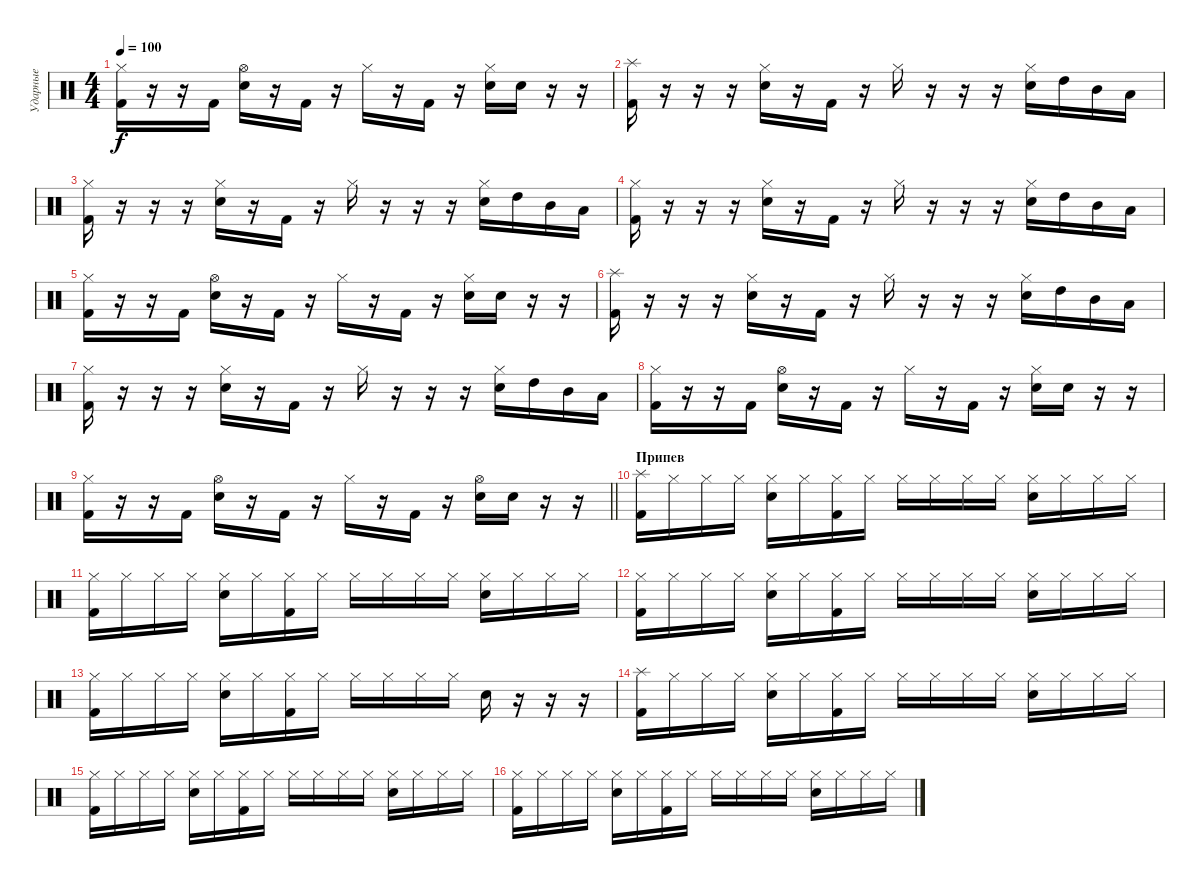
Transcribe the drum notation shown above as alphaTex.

\track ("Ударные" "Ударные") {instrument percussion}
\staff {score}
\articulation defaults
\ts (4 4)
\tempo 100
\clef neutral
\ks c
("Hi-Hat (closed)" "Kick (hit) 2").16{dy f} r.16 r.16 "Kick (hit) 2".16 ("Hi-Hat (open)" "Electric Snare (hit)").16 r.16 "Kick (hit) 2".16 r.16 "Hi-Hat (closed)".16 r.16 "Kick (hit) 2".16 r.16 ("Hi-Hat (closed)" "Electric Snare (hit)").16 "Electric Snare (hit)".16 r.16 r.16 |
("Splash (hit)" "Kick (hit) 2").16 r.16 r.16 r.16 ("Hi-Hat (closed)" "Electric Snare (hit)").16 r.16 "Kick (hit) 2".16 r.16 "Hi-Hat (closed)".16 r.16 r.16 r.16 ("Hi-Hat (closed)" "Electric Snare (hit)").16 "High Tom (hit)".16 "Mid Tom (hit)".16 "Low Tom (hit)".16 |
("Hi-Hat (closed)" "Kick (hit) 2").16 r.16 r.16 r.16 ("Hi-Hat (closed)" "Electric Snare (hit)").16 r.16 "Kick (hit) 2".16 r.16 "Hi-Hat (closed)".16 r.16 r.16 r.16 ("Hi-Hat (closed)" "Electric Snare (hit)").16 "High Tom (hit)".16 "Mid Tom (hit)".16 "Low Tom (hit)".16 |
("Hi-Hat (closed)" "Kick (hit) 2").16 r.16 r.16 r.16 ("Hi-Hat (closed)" "Electric Snare (hit)").16 r.16 "Kick (hit) 2".16 r.16 "Hi-Hat (closed)".16 r.16 r.16 r.16 ("Hi-Hat (closed)" "Electric Snare (hit)").16 "High Tom (hit)".16 "Mid Tom (hit)".16 "Low Tom (hit)".16 |
("Hi-Hat (closed)" "Kick (hit) 2").16 r.16 r.16 "Kick (hit) 2".16 ("Hi-Hat (open)" "Electric Snare (hit)").16 r.16 "Kick (hit) 2".16 r.16 "Hi-Hat (closed)".16 r.16 "Kick (hit) 2".16 r.16 ("Hi-Hat (closed)" "Electric Snare (hit)").16 "Electric Snare (hit)".16 r.16 r.16 |
("Splash (hit)" "Kick (hit) 2").16 r.16 r.16 r.16 ("Hi-Hat (closed)" "Electric Snare (hit)").16 r.16 "Kick (hit) 2".16 r.16 "Hi-Hat (closed)".16 r.16 r.16 r.16 ("Hi-Hat (closed)" "Electric Snare (hit)").16 "High Tom (hit)".16 "Mid Tom (hit)".16 "Low Tom (hit)".16 |
("Hi-Hat (closed)" "Kick (hit) 2").16 r.16 r.16 r.16 ("Hi-Hat (closed)" "Electric Snare (hit)").16 r.16 "Kick (hit) 2".16 r.16 "Hi-Hat (closed)".16 r.16 r.16 r.16 ("Hi-Hat (closed)" "Electric Snare (hit)").16 "High Tom (hit)".16 "Mid Tom (hit)".16 "Low Tom (hit)".16 |
("Hi-Hat (closed)" "Kick (hit) 2").16 r.16 r.16 "Kick (hit) 2".16 ("Hi-Hat (open)" "Electric Snare (hit)").16 r.16 "Kick (hit) 2".16 r.16 "Hi-Hat (closed)".16 r.16 "Kick (hit) 2".16 r.16 ("Hi-Hat (closed)" "Electric Snare (hit)").16 "Electric Snare (hit)".16 r.16 r.16 |
\barLineRight lightlight
("Hi-Hat (closed)" "Kick (hit) 2").16 r.16 r.16 "Kick (hit) 2".16 ("Hi-Hat (open)" "Electric Snare (hit)").16 r.16 "Kick (hit) 2".16 r.16 "Hi-Hat (closed)".16 r.16 "Kick (hit) 2".16 r.16 ("Hi-Hat (open)" "Electric Snare (hit)").16 "Electric Snare (hit)".16 r.16 r.16 |
\section ("" "Припев")
("Splash (hit)" "Kick (hit) 2").16 "Hi-Hat (closed)".16 "Hi-Hat (closed)".16 "Hi-Hat (closed)".16 ("Hi-Hat (closed)" "Electric Snare (hit)").16 "Hi-Hat (closed)".16 ("Hi-Hat (closed)" "Kick (hit) 2").16 "Hi-Hat (closed)".16 "Hi-Hat (closed)".16 "Hi-Hat (closed)".16 "Hi-Hat (closed)".16 "Hi-Hat (closed)".16 ("Hi-Hat (closed)" "Electric Snare (hit)").16 "Hi-Hat (closed)".16 "Hi-Hat (closed)".16 "Hi-Hat (closed)".16 |
("Hi-Hat (closed)" "Kick (hit) 2").16 "Hi-Hat (closed)".16 "Hi-Hat (closed)".16 "Hi-Hat (closed)".16 ("Hi-Hat (closed)" "Electric Snare (hit)").16 "Hi-Hat (closed)".16 ("Hi-Hat (closed)" "Kick (hit) 2").16 "Hi-Hat (closed)".16 "Hi-Hat (closed)".16 "Hi-Hat (closed)".16 "Hi-Hat (closed)".16 "Hi-Hat (closed)".16 ("Hi-Hat (closed)" "Electric Snare (hit)").16 "Hi-Hat (closed)".16 "Hi-Hat (closed)".16 "Hi-Hat (closed)".16 |
("Hi-Hat (closed)" "Kick (hit) 2").16 "Hi-Hat (closed)".16 "Hi-Hat (closed)".16 "Hi-Hat (closed)".16 ("Hi-Hat (closed)" "Electric Snare (hit)").16 "Hi-Hat (closed)".16 ("Hi-Hat (closed)" "Kick (hit) 2").16 "Hi-Hat (closed)".16 "Hi-Hat (closed)".16 "Hi-Hat (closed)".16 "Hi-Hat (closed)".16 "Hi-Hat (closed)".16 ("Hi-Hat (closed)" "Electric Snare (hit)").16 "Hi-Hat (closed)".16 "Hi-Hat (closed)".16 "Hi-Hat (closed)".16 |
("Hi-Hat (closed)" "Kick (hit) 2").16 "Hi-Hat (closed)".16 "Hi-Hat (closed)".16 "Hi-Hat (closed)".16 ("Hi-Hat (closed)" "Electric Snare (hit)").16 "Hi-Hat (closed)".16 ("Hi-Hat (closed)" "Kick (hit) 2").16 "Hi-Hat (closed)".16 "Hi-Hat (closed)".16 "Hi-Hat (closed)".16 "Hi-Hat (closed)".16 "Hi-Hat (closed)".16 "Electric Snare (hit)".16 r.16 r.16 r.16 |
("Splash (hit)" "Kick (hit) 2").16 "Hi-Hat (closed)".16 "Hi-Hat (closed)".16 "Hi-Hat (closed)".16 ("Hi-Hat (closed)" "Electric Snare (hit)").16 "Hi-Hat (closed)".16 ("Hi-Hat (closed)" "Kick (hit) 2").16 "Hi-Hat (closed)".16 "Hi-Hat (closed)".16 "Hi-Hat (closed)".16 "Hi-Hat (closed)".16 "Hi-Hat (closed)".16 ("Hi-Hat (closed)" "Electric Snare (hit)").16 "Hi-Hat (closed)".16 "Hi-Hat (closed)".16 "Hi-Hat (closed)".16 |
("Hi-Hat (closed)" "Kick (hit) 2").16 "Hi-Hat (closed)".16 "Hi-Hat (closed)".16 "Hi-Hat (closed)".16 ("Hi-Hat (closed)" "Electric Snare (hit)").16 "Hi-Hat (closed)".16 ("Hi-Hat (closed)" "Kick (hit) 2").16 "Hi-Hat (closed)".16 "Hi-Hat (closed)".16 "Hi-Hat (closed)".16 "Hi-Hat (closed)".16 "Hi-Hat (closed)".16 ("Hi-Hat (closed)" "Electric Snare (hit)").16 "Hi-Hat (closed)".16 "Hi-Hat (closed)".16 "Hi-Hat (closed)".16 |
("Hi-Hat (closed)" "Kick (hit) 2").16 "Hi-Hat (closed)".16 "Hi-Hat (closed)".16 "Hi-Hat (closed)".16 ("Hi-Hat (closed)" "Electric Snare (hit)").16 "Hi-Hat (closed)".16 ("Hi-Hat (closed)" "Kick (hit) 2").16 "Hi-Hat (closed)".16 "Hi-Hat (closed)".16 "Hi-Hat (closed)".16 "Hi-Hat (closed)".16 "Hi-Hat (closed)".16 ("Hi-Hat (closed)" "Electric Snare (hit)").16 "Hi-Hat (closed)".16 "Hi-Hat (closed)".16 "Hi-Hat (closed)".16
